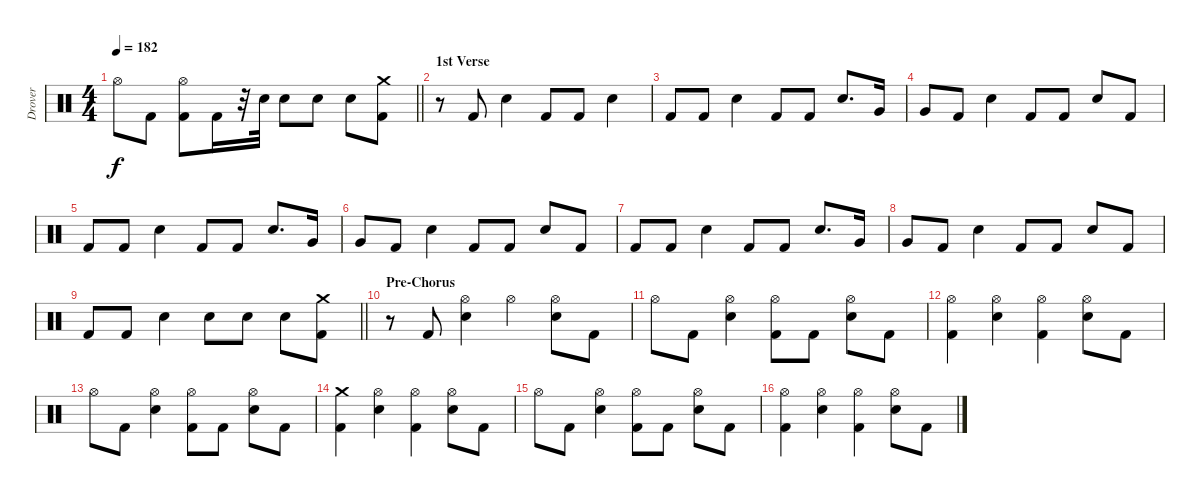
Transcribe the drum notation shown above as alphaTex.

\track ("Drover" "Drover") {instrument percussion}
\staff {score}
\articulation defaults
\ts (4 4)
\tempo 182
\clef neutral
\barLineRight lightlight
\ks c "Hi-Hat (open)".8{dy f} "Kick (hit) 2".8
("Hi-Hat (open)" "Kick (hit) 2").8 "Kick (hit) 2".16 r.32 "Snare (hit) 2".32 "Snare (hit) 2".8 "Snare (hit) 2".8 "Snare (hit) 2".8 ("Crash medium (hit)" "Kick (hit) 2").8 |
\section ("" "1st Verse")
r.8 "Kick (hit) 2".8 "Snare (hit) 2".4 "Kick (hit) 2".8 "Kick (hit) 2".8 "Snare (hit) 2".4 |
"Kick (hit) 2".8 "Kick (hit) 2".8 "Snare (hit) 2".4 "Kick (hit) 2".8 "Kick (hit) 2".8 "Snare (hit) 2".8{d} "Very Low Tom (hit)".16 |
"Very Low Tom (hit)".8 "Kick (hit) 2".8 "Snare (hit) 2".4 "Kick (hit) 2".8 "Kick (hit) 2".8 "Snare (hit) 2".8 "Kick (hit) 2".8 |
"Kick (hit) 2".8 "Kick (hit) 2".8 "Snare (hit) 2".4 "Kick (hit) 2".8 "Kick (hit) 2".8 "Snare (hit) 2".8{d} "Very Low Tom (hit)".16 |
"Very Low Tom (hit)".8 "Kick (hit) 2".8 "Snare (hit) 2".4 "Kick (hit) 2".8 "Kick (hit) 2".8 "Snare (hit) 2".8 "Kick (hit) 2".8 |
"Kick (hit) 2".8 "Kick (hit) 2".8 "Snare (hit) 2".4 "Kick (hit) 2".8 "Kick (hit) 2".8 "Snare (hit) 2".8{d} "Very Low Tom (hit)".16 |
"Very Low Tom (hit)".8 "Kick (hit) 2".8 "Snare (hit) 2".4 "Kick (hit) 2".8 "Kick (hit) 2".8 "Snare (hit) 2".8 "Kick (hit) 2".8 |
\barLineRight lightlight "Kick (hit) 2".8 "Kick (hit) 2".8 "Snare (hit) 2".4 "Snare (hit) 2".8 "Snare (hit) 2".8 "Snare (hit) 2".8
("Crash medium (hit)" "Kick (hit) 2").8 |
\section ("" "Pre-Chorus")
r.8 "Kick (hit) 2".8 ("Hi-Hat (open)" "Snare (hit) 2").4 "Hi-Hat (open)".4 ("Hi-Hat (open)" "Snare (hit) 2").8 "Kick (hit) 2".8 |
"Hi-Hat (open)".8 "Kick (hit) 2".8 ("Hi-Hat (open)" "Snare (hit) 2").4 ("Hi-Hat (open)" "Kick (hit) 2").8 "Kick (hit) 2".8 ("Hi-Hat (open)" "Snare (hit) 2").8 "Kick (hit) 2".8 |
("Hi-Hat (open)" "Kick (hit) 2").4 ("Hi-Hat (open)" "Snare (hit) 2").4 ("Hi-Hat (open)" "Kick (hit) 2").4 ("Hi-Hat (open)" "Snare (hit) 2").8 "Kick (hit) 2".8 |
"Hi-Hat (open)".8 "Kick (hit) 2".8 ("Hi-Hat (open)" "Snare (hit) 2").4 ("Hi-Hat (open)" "Kick (hit) 2").8 "Kick (hit) 2".8 ("Hi-Hat (open)" "Snare (hit) 2").8 "Kick (hit) 2".8 |
("Crash medium (hit)" "Kick (hit) 2").4 ("Hi-Hat (open)" "Snare (hit) 2").4 ("Hi-Hat (open)" "Kick (hit) 2").4 ("Hi-Hat (open)" "Snare (hit) 2").8 "Kick (hit) 2".8 |
"Hi-Hat (open)".8 "Kick (hit) 2".8 ("Hi-Hat (open)" "Snare (hit) 2").4 ("Hi-Hat (open)" "Kick (hit) 2").8 "Kick (hit) 2".8 ("Hi-Hat (open)" "Snare (hit) 2").8 "Kick (hit) 2".8 |
("Hi-Hat (open)" "Kick (hit) 2").4 ("Hi-Hat (open)" "Snare (hit) 2").4 ("Hi-Hat (open)" "Kick (hit) 2").4 ("Hi-Hat (open)" "Snare (hit) 2").8 "Kick (hit) 2".8
